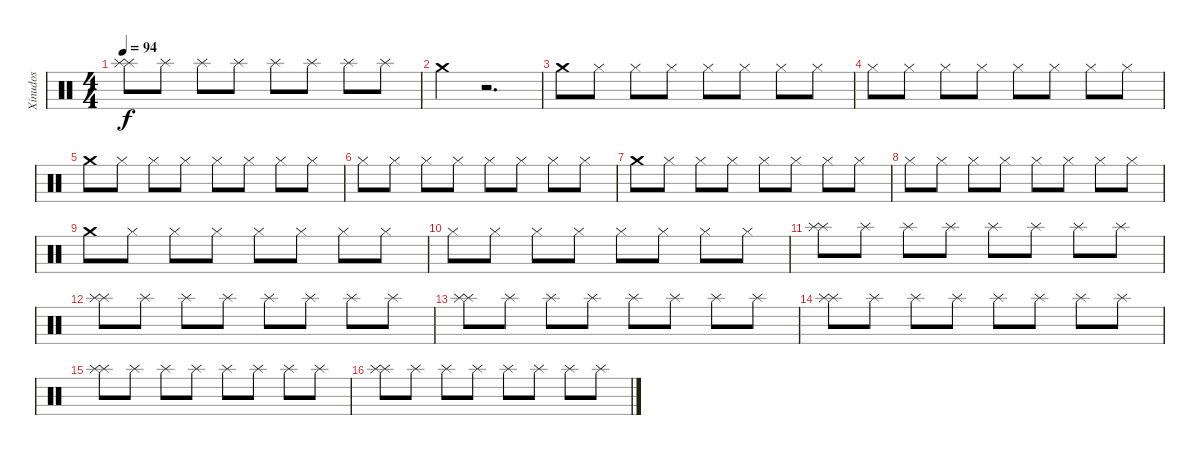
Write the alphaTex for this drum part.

\track ("Xinudos" "Xinudos") {instrument percussion}
\staff {score}
\articulation defaults
\ts (4 4)
\tempo 94
\clef neutral
\ks c
("Splash (hit)" "Splash (hit)").8{dy f} "Splash (hit)".8 "Splash (hit)".8 "Splash (hit)".8 "Splash (hit)".8 "Splash (hit)".8 "Splash (hit)".8 "Splash (hit)".8 |
"Crash medium (hit)".4 r.2{d} |
"Crash medium (hit)".8 "Hi-Hat (closed)".8 "Hi-Hat (closed)".8 "Hi-Hat (closed)".8 "Hi-Hat (closed)".8 "Hi-Hat (closed)".8 "Hi-Hat (closed)".8 "Hi-Hat (closed)".8 |
"Hi-Hat (closed)".8 "Hi-Hat (closed)".8 "Hi-Hat (closed)".8 "Hi-Hat (closed)".8 "Hi-Hat (closed)".8 "Hi-Hat (closed)".8 "Hi-Hat (closed)".8 "Hi-Hat (closed)".8 |
"Crash medium (hit)".8 "Hi-Hat (closed)".8 "Hi-Hat (closed)".8 "Hi-Hat (closed)".8 "Hi-Hat (closed)".8 "Hi-Hat (closed)".8 "Hi-Hat (closed)".8 "Hi-Hat (closed)".8 |
"Hi-Hat (closed)".8 "Hi-Hat (closed)".8 "Hi-Hat (closed)".8 "Hi-Hat (closed)".8 "Hi-Hat (closed)".8 "Hi-Hat (closed)".8 "Hi-Hat (closed)".8 "Hi-Hat (closed)".8 |
"Crash medium (hit)".8 "Hi-Hat (closed)".8 "Hi-Hat (closed)".8 "Hi-Hat (closed)".8 "Hi-Hat (closed)".8 "Hi-Hat (closed)".8 "Hi-Hat (closed)".8 "Hi-Hat (closed)".8 |
"Hi-Hat (closed)".8 "Hi-Hat (closed)".8 "Hi-Hat (closed)".8 "Hi-Hat (closed)".8 "Hi-Hat (closed)".8 "Hi-Hat (closed)".8 "Hi-Hat (closed)".8 "Hi-Hat (closed)".8 |
"Crash medium (hit)".8 "Hi-Hat (closed)".8 "Hi-Hat (closed)".8 "Hi-Hat (closed)".8 "Hi-Hat (closed)".8 "Hi-Hat (closed)".8 "Hi-Hat (closed)".8 "Hi-Hat (closed)".8 |
"Hi-Hat (closed)".8 "Hi-Hat (closed)".8 "Hi-Hat (closed)".8 "Hi-Hat (closed)".8 "Hi-Hat (closed)".8 "Hi-Hat (closed)".8 "Hi-Hat (closed)".8 "Hi-Hat (closed)".8 |
("Splash (hit)" "Splash (hit)").8 "Splash (hit)".8 "Splash (hit)".8 "Splash (hit)".8 "Splash (hit)".8 "Splash (hit)".8 "Splash (hit)".8 "Splash (hit)".8 |
("Splash (hit)" "Splash (hit)").8 "Splash (hit)".8 "Splash (hit)".8 "Splash (hit)".8 "Splash (hit)".8 "Splash (hit)".8 "Splash (hit)".8 "Splash (hit)".8 |
("Splash (hit)" "Splash (hit)").8 "Splash (hit)".8 "Splash (hit)".8 "Splash (hit)".8 "Splash (hit)".8 "Splash (hit)".8 "Splash (hit)".8 "Splash (hit)".8 |
("Splash (hit)" "Splash (hit)").8 "Splash (hit)".8 "Splash (hit)".8 "Splash (hit)".8 "Splash (hit)".8 "Splash (hit)".8 "Splash (hit)".8 "Splash (hit)".8 |
("Splash (hit)" "Splash (hit)").8 "Splash (hit)".8 "Splash (hit)".8 "Splash (hit)".8 "Splash (hit)".8 "Splash (hit)".8 "Splash (hit)".8 "Splash (hit)".8 |
("Splash (hit)" "Splash (hit)").8 "Splash (hit)".8 "Splash (hit)".8 "Splash (hit)".8 "Splash (hit)".8 "Splash (hit)".8 "Splash (hit)".8 "Splash (hit)".8
